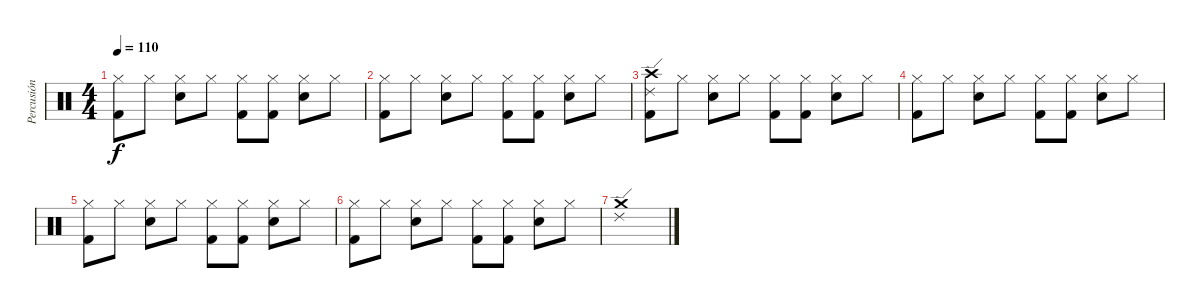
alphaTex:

\track ("Percusión" "Percusión") {instrument percussion}
\staff {score}
\articulation defaults
\ts (4 4)
\tempo 110
\clef neutral
\ks c
("Kick (hit) 2" "Hi-Hat (closed)").8{dy f} "Hi-Hat (closed)".8 ("Snare (hit) 2" "Hi-Hat (closed)").8 "Hi-Hat (closed)".8 ("Kick (hit) 2" "Hi-Hat (closed)").8 ("Kick (hit) 2" "Hi-Hat (closed)").8 ("Snare (hit) 2" "Hi-Hat (closed)").8 "Hi-Hat (closed)".8 |
("Kick (hit) 2" "Hi-Hat (closed)").8 "Hi-Hat (closed)".8 ("Snare (hit) 2" "Hi-Hat (closed)").8 "Hi-Hat (closed)".8 ("Kick (hit) 2" "Hi-Hat (closed)").8 ("Kick (hit) 2" "Hi-Hat (closed)").8 ("Snare (hit) 2" "Hi-Hat (closed)").8 "Hi-Hat (closed)".8 |
("Ride (edge) 2" "Kick (hit) 2" "Crash high (hit)").8 "Hi-Hat (closed)".8 ("Snare (hit) 2" "Hi-Hat (closed)").8 "Hi-Hat (closed)".8 ("Kick (hit) 2" "Hi-Hat (closed)").8 ("Kick (hit) 2" "Hi-Hat (closed)").8 ("Snare (hit) 2" "Hi-Hat (closed)").8 "Hi-Hat (closed)".8 |
("Kick (hit) 2" "Hi-Hat (closed)").8 "Hi-Hat (closed)".8 ("Snare (hit) 2" "Hi-Hat (closed)").8 "Hi-Hat (closed)".8 ("Kick (hit) 2" "Hi-Hat (closed)").8 ("Kick (hit) 2" "Hi-Hat (closed)").8 ("Snare (hit) 2" "Hi-Hat (closed)").8 "Hi-Hat (closed)".8 |
("Kick (hit) 2" "Hi-Hat (closed)").8 "Hi-Hat (closed)".8 ("Snare (hit) 2" "Hi-Hat (closed)").8 "Hi-Hat (closed)".8 ("Kick (hit) 2" "Hi-Hat (closed)").8 ("Kick (hit) 2" "Hi-Hat (closed)").8 ("Snare (hit) 2" "Hi-Hat (closed)").8 "Hi-Hat (closed)".8 |
("Kick (hit) 2" "Hi-Hat (closed)").8 "Hi-Hat (closed)".8 ("Snare (hit) 2" "Hi-Hat (closed)").8 "Hi-Hat (closed)".8 ("Kick (hit) 2" "Hi-Hat (closed)").8 ("Kick (hit) 2" "Hi-Hat (closed)").8 ("Snare (hit) 2" "Hi-Hat (closed)").8 "Hi-Hat (closed)".8 |
("Ride (edge) 2" "Crash medium (hit)").1
